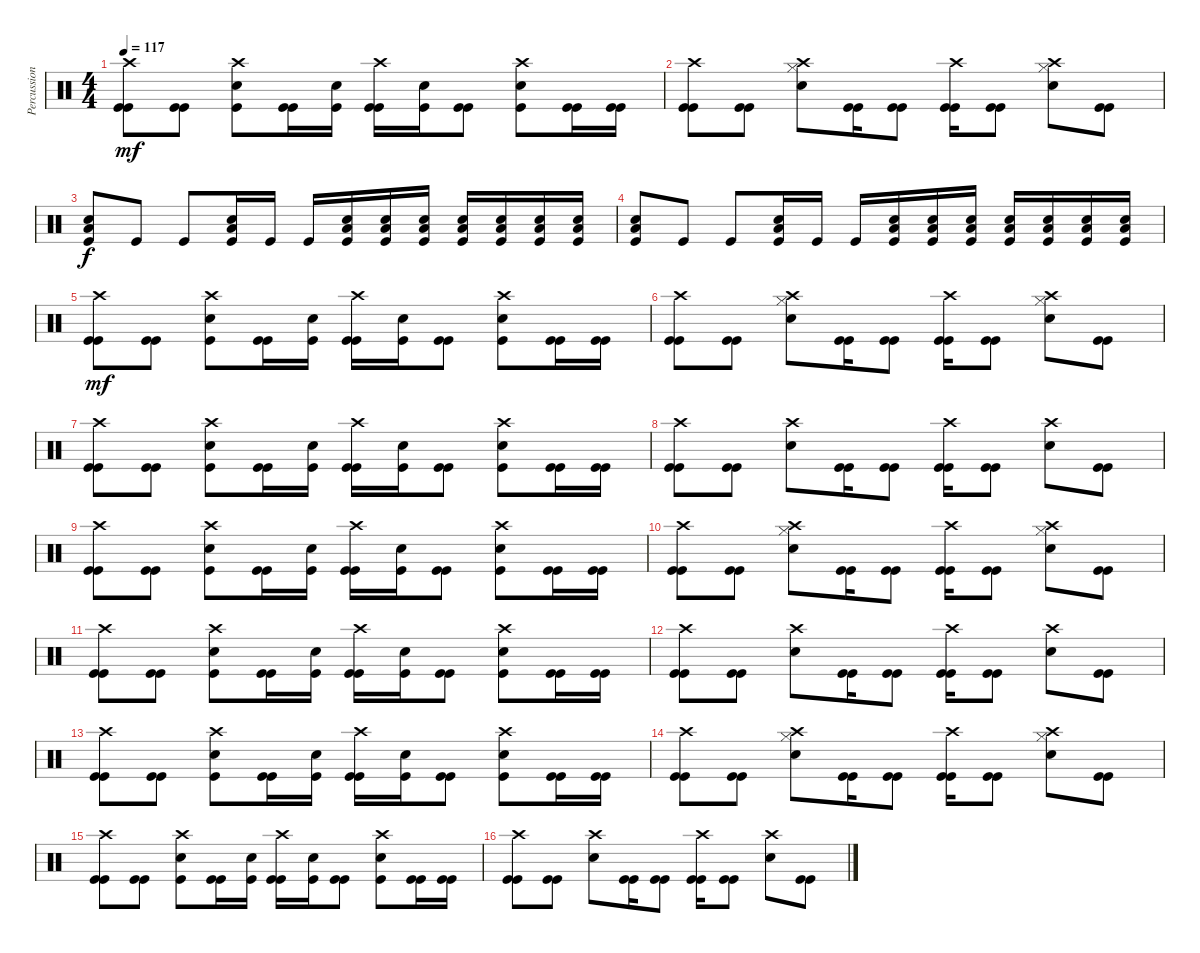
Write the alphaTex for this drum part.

\track ("Percussion" "Percussion") {instrument percussion}
\staff {score}
\articulation defaults
\ts (4 4)
\tempo 117
\clef neutral
\ks c
("Crash high (hit)" "Kick (hit)" "Kick (hit)").8{dy mf} ("Kick (hit)" "Kick (hit)").8 ("Crash high (hit)" "Kick (hit)" "Electric Snare (hit)").8 ("Kick (hit)" "Kick (hit)").16 ("Kick (hit)" "Electric Snare (hit)").16 ("Crash high (hit)" "Kick (hit)" "Kick (hit)").16 ("Kick (hit)" "Electric Snare (hit)").16 ("Kick (hit)" "Kick (hit)").8 ("Crash high (hit)" "Kick (hit)" "Electric Snare (hit)").8 ("Kick (hit)" "Kick (hit)").16 ("Kick (hit)" "Kick (hit)").16 |
("Kick (hit)" "Kick (hit)" "Crash high (hit)").8 ("Kick (hit)" "Kick (hit)").8 ("Electric Snare (hit)" "Hi-Hat (closed)" "Crash high (hit)").8 ("Kick (hit)" "Kick (hit)").16 ("Kick (hit)" "Kick (hit)").8 ("Kick (hit)" "Kick (hit)" "Crash high (hit)").16 ("Kick (hit)" "Kick (hit)").8 ("Electric Snare (hit)" "Hi-Hat (closed)" "Crash high (hit)").8 ("Kick (hit)" "Kick (hit)").8 |
("Kick (hit)" "Low Floor Tom (hit)" "Hand Clap (hit)").8{dy f} "Kick (hit)".8 "Kick (hit)".8 ("Kick (hit)" "Low Floor Tom (hit)" "Hand Clap (hit)").16 "Kick (hit)".16 "Kick (hit)".16 ("Kick (hit)" "Low Floor Tom (hit)" "Hand Clap (hit)").16 ("Kick (hit)" "Low Floor Tom (hit)" "Hand Clap (hit)").16 ("Kick (hit)" "Low Floor Tom (hit)" "Hand Clap (hit)").16 ("Kick (hit)" "Low Floor Tom (hit)" "Hand Clap (hit)").16 ("Kick (hit)" "Low Floor Tom (hit)" "Hand Clap (hit)").16 ("Kick (hit)" "Low Floor Tom (hit)" "Hand Clap (hit)").16 ("Kick (hit)" "Low Floor Tom (hit)" "Hand Clap (hit)").16 |
("Kick (hit)" "Low Floor Tom (hit)" "Hand Clap (hit)").8 "Kick (hit)".8 "Kick (hit)".8 ("Kick (hit)" "Low Floor Tom (hit)" "Hand Clap (hit)").16 "Kick (hit)".16 "Kick (hit)".16 ("Kick (hit)" "Low Floor Tom (hit)" "Hand Clap (hit)").16 ("Kick (hit)" "Low Floor Tom (hit)" "Hand Clap (hit)").16 ("Kick (hit)" "Low Floor Tom (hit)" "Hand Clap (hit)").16 ("Kick (hit)" "Low Floor Tom (hit)" "Hand Clap (hit)").16 ("Kick (hit)" "Low Floor Tom (hit)" "Hand Clap (hit)").16 ("Kick (hit)" "Low Floor Tom (hit)" "Hand Clap (hit)").16 ("Kick (hit)" "Low Floor Tom (hit)" "Hand Clap (hit)").16 |
("Crash high (hit)" "Kick (hit)" "Kick (hit)").8{dy mf} ("Kick (hit)" "Kick (hit)").8 ("Crash high (hit)" "Kick (hit)" "Electric Snare (hit)").8 ("Kick (hit)" "Kick (hit)").16 ("Kick (hit)" "Electric Snare (hit)").16 ("Crash high (hit)" "Kick (hit)" "Kick (hit)").16 ("Kick (hit)" "Electric Snare (hit)").16 ("Kick (hit)" "Kick (hit)").8 ("Crash high (hit)" "Kick (hit)" "Electric Snare (hit)").8 ("Kick (hit)" "Kick (hit)").16 ("Kick (hit)" "Kick (hit)").16 |
("Kick (hit)" "Kick (hit)" "Crash high (hit)").8 ("Kick (hit)" "Kick (hit)").8 ("Electric Snare (hit)" "Hi-Hat (closed)" "Crash high (hit)").8 ("Kick (hit)" "Kick (hit)").16 ("Kick (hit)" "Kick (hit)").8 ("Kick (hit)" "Kick (hit)" "Crash high (hit)").16 ("Kick (hit)" "Kick (hit)").8 ("Electric Snare (hit)" "Hi-Hat (closed)" "Crash high (hit)").8 ("Kick (hit)" "Kick (hit)").8 |
("Kick (hit)" "Kick (hit)" "Crash high (hit)").8 ("Kick (hit)" "Kick (hit)").8 ("Kick (hit)" "Electric Snare (hit)" "Crash high (hit)").8 ("Kick (hit)" "Kick (hit)").16 ("Kick (hit)" "Electric Snare (hit)").16 ("Kick (hit)" "Kick (hit)" "Crash high (hit)").16 ("Kick (hit)" "Electric Snare (hit)").16 ("Kick (hit)" "Kick (hit)").8 ("Kick (hit)" "Electric Snare (hit)" "Crash high (hit)").8 ("Kick (hit)" "Kick (hit)").16 ("Kick (hit)" "Kick (hit)").16 |
("Kick (hit)" "Kick (hit)" "Crash high (hit)").8 ("Kick (hit)" "Kick (hit)").8 ("Electric Snare (hit)" "Crash high (hit)").8 ("Kick (hit)" "Kick (hit)").16 ("Kick (hit)" "Kick (hit)").8 ("Kick (hit)" "Kick (hit)" "Crash high (hit)").16 ("Kick (hit)" "Kick (hit)").8 ("Electric Snare (hit)" "Crash high (hit)").8 ("Kick (hit)" "Kick (hit)").8 |
("Crash high (hit)" "Kick (hit)" "Kick (hit)").8 ("Kick (hit)" "Kick (hit)").8 ("Crash high (hit)" "Kick (hit)" "Electric Snare (hit)").8 ("Kick (hit)" "Kick (hit)").16 ("Kick (hit)" "Electric Snare (hit)").16 ("Crash high (hit)" "Kick (hit)" "Kick (hit)").16 ("Kick (hit)" "Electric Snare (hit)").16 ("Kick (hit)" "Kick (hit)").8 ("Crash high (hit)" "Kick (hit)" "Electric Snare (hit)").8 ("Kick (hit)" "Kick (hit)").16 ("Kick (hit)" "Kick (hit)").16 |
("Kick (hit)" "Kick (hit)" "Crash high (hit)").8 ("Kick (hit)" "Kick (hit)").8 ("Electric Snare (hit)" "Hi-Hat (closed)" "Crash high (hit)").8 ("Kick (hit)" "Kick (hit)").16 ("Kick (hit)" "Kick (hit)").8 ("Kick (hit)" "Kick (hit)" "Crash high (hit)").16 ("Kick (hit)" "Kick (hit)").8 ("Electric Snare (hit)" "Hi-Hat (closed)" "Crash high (hit)").8 ("Kick (hit)" "Kick (hit)").8 |
("Kick (hit)" "Kick (hit)" "Crash high (hit)").8 ("Kick (hit)" "Kick (hit)").8 ("Kick (hit)" "Electric Snare (hit)" "Crash high (hit)").8 ("Kick (hit)" "Kick (hit)").16 ("Kick (hit)" "Electric Snare (hit)").16 ("Kick (hit)" "Kick (hit)" "Crash high (hit)").16 ("Kick (hit)" "Electric Snare (hit)").16 ("Kick (hit)" "Kick (hit)").8 ("Kick (hit)" "Electric Snare (hit)" "Crash high (hit)").8 ("Kick (hit)" "Kick (hit)").16 ("Kick (hit)" "Kick (hit)").16 |
("Kick (hit)" "Kick (hit)" "Crash high (hit)").8 ("Kick (hit)" "Kick (hit)").8 ("Electric Snare (hit)" "Crash high (hit)").8 ("Kick (hit)" "Kick (hit)").16 ("Kick (hit)" "Kick (hit)").8 ("Kick (hit)" "Kick (hit)" "Crash high (hit)").16 ("Kick (hit)" "Kick (hit)").8 ("Electric Snare (hit)" "Crash high (hit)").8 ("Kick (hit)" "Kick (hit)").8 |
("Crash high (hit)" "Kick (hit)" "Kick (hit)").8 ("Kick (hit)" "Kick (hit)").8 ("Crash high (hit)" "Kick (hit)" "Electric Snare (hit)").8 ("Kick (hit)" "Kick (hit)").16 ("Kick (hit)" "Electric Snare (hit)").16 ("Crash high (hit)" "Kick (hit)" "Kick (hit)").16 ("Kick (hit)" "Electric Snare (hit)").16 ("Kick (hit)" "Kick (hit)").8 ("Crash high (hit)" "Kick (hit)" "Electric Snare (hit)").8 ("Kick (hit)" "Kick (hit)").16 ("Kick (hit)" "Kick (hit)").16 |
("Kick (hit)" "Kick (hit)" "Crash high (hit)").8 ("Kick (hit)" "Kick (hit)").8 ("Electric Snare (hit)" "Hi-Hat (closed)" "Crash high (hit)").8 ("Kick (hit)" "Kick (hit)").16 ("Kick (hit)" "Kick (hit)").8 ("Kick (hit)" "Kick (hit)" "Crash high (hit)").16 ("Kick (hit)" "Kick (hit)").8 ("Electric Snare (hit)" "Hi-Hat (closed)" "Crash high (hit)").8 ("Kick (hit)" "Kick (hit)").8 |
("Kick (hit)" "Kick (hit)" "Crash high (hit)").8 ("Kick (hit)" "Kick (hit)").8 ("Kick (hit)" "Electric Snare (hit)" "Crash high (hit)").8 ("Kick (hit)" "Kick (hit)").16 ("Kick (hit)" "Electric Snare (hit)").16 ("Kick (hit)" "Kick (hit)" "Crash high (hit)").16 ("Kick (hit)" "Electric Snare (hit)").16 ("Kick (hit)" "Kick (hit)").8 ("Kick (hit)" "Electric Snare (hit)" "Crash high (hit)").8 ("Kick (hit)" "Kick (hit)").16 ("Kick (hit)" "Kick (hit)").16 |
("Kick (hit)" "Kick (hit)" "Crash high (hit)").8 ("Kick (hit)" "Kick (hit)").8 ("Electric Snare (hit)" "Crash high (hit)").8 ("Kick (hit)" "Kick (hit)").16 ("Kick (hit)" "Kick (hit)").8 ("Kick (hit)" "Kick (hit)" "Crash high (hit)").16 ("Kick (hit)" "Kick (hit)").8 ("Electric Snare (hit)" "Crash high (hit)").8 ("Kick (hit)" "Kick (hit)").8
